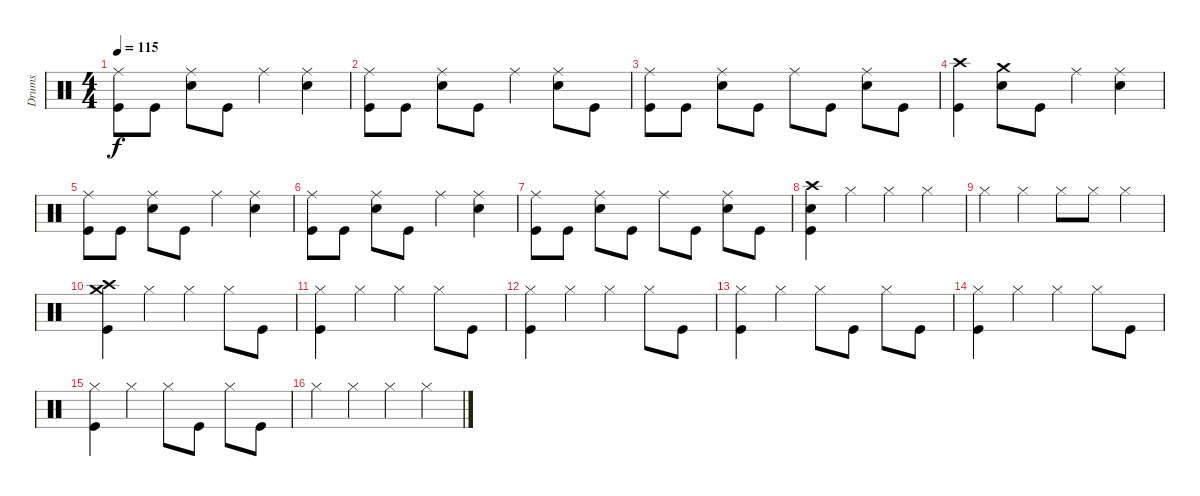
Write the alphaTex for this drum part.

\track ("Drums" "Drums") {instrument percussion}
\staff {score}
\articulation defaults
\ts (4 4)
\tempo 115
\clef neutral
\ks c
("Ride (middle)" "Kick (hit)").8{dy f} "Kick (hit)".8 ("Ride (middle)" "Snare (hit) 2").8 "Kick (hit)".8 "Ride (middle)".4 ("Ride (middle)" "Snare (hit) 2").4 |
("Ride (middle)" "Kick (hit)").8 "Kick (hit)".8 ("Ride (middle)" "Snare (hit) 2").8 "Kick (hit)".8 "Ride (middle)".4 ("Ride (middle)" "Snare (hit) 2").8 "Kick (hit)".8 |
("Ride (middle)" "Kick (hit)").8 "Kick (hit)".8 ("Ride (middle)" "Snare (hit) 2").8 "Kick (hit)".8 "Ride (middle)".8 "Kick (hit)".8 ("Ride (middle)" "Snare (hit) 2").8 "Kick (hit)".8 |
("Crash high (hit)" "Kick (hit)").4 ("Crash medium (hit)" "Snare (hit) 2").8 "Kick (hit)".8 "Ride (middle)".4 ("Ride (middle)" "Snare (hit) 2").4 |
("Ride (middle)" "Kick (hit)").8 "Kick (hit)".8 ("Ride (middle)" "Snare (hit) 2").8 "Kick (hit)".8 "Ride (middle)".4 ("Ride (middle)" "Snare (hit) 2").4 |
("Ride (middle)" "Kick (hit)").8 "Kick (hit)".8 ("Ride (middle)" "Snare (hit) 2").8 "Kick (hit)".8 "Ride (middle)".4 ("Ride (middle)" "Snare (hit) 2").4 |
("Ride (middle)" "Kick (hit)").8 "Kick (hit)".8 ("Ride (middle)" "Snare (hit) 2").8 "Kick (hit)".8 "Ride (middle)".8 "Kick (hit)".8 ("Ride (middle)" "Snare (hit) 2").8 "Kick (hit)".8 |
("Crash high (hit)" "Snare (hit) 2" "Kick (hit)").4 "Hi-Hat (closed)".4 "Hi-Hat (closed)".4 "Hi-Hat (closed)".4 |
"Hi-Hat (closed)".4 "Hi-Hat (closed)".4 "Hi-Hat (closed)".8 "Hi-Hat (closed)".8 "Hi-Hat (closed)".4 |
("Crash high (hit)" "Crash medium (hit)" "Kick (hit)").4 "Hi-Hat (closed)".4 "Hi-Hat (closed)".4 "Hi-Hat (closed)".8 "Kick (hit)".8 |
("Hi-Hat (closed)" "Kick (hit)").4 "Hi-Hat (closed)".4 "Hi-Hat (closed)".4 "Hi-Hat (closed)".8 "Kick (hit)".8 |
("Hi-Hat (closed)" "Kick (hit)").4 "Hi-Hat (closed)".4 "Hi-Hat (closed)".4 "Hi-Hat (closed)".8 "Kick (hit)".8 |
("Hi-Hat (closed)" "Kick (hit)").4 "Hi-Hat (closed)".4 "Hi-Hat (closed)".8 "Kick (hit)".8 "Hi-Hat (closed)".8 "Kick (hit)".8 |
("Hi-Hat (closed)" "Kick (hit)").4 "Hi-Hat (closed)".4 "Hi-Hat (closed)".4 "Hi-Hat (closed)".8 "Kick (hit)".8 |
("Hi-Hat (closed)" "Kick (hit)").4 "Hi-Hat (closed)".4 "Hi-Hat (closed)".8 "Kick (hit)".8 "Hi-Hat (closed)".8 "Kick (hit)".8 |
"Hi-Hat (closed)".4 "Hi-Hat (closed)".4 "Hi-Hat (closed)".4 "Hi-Hat (closed)".4
